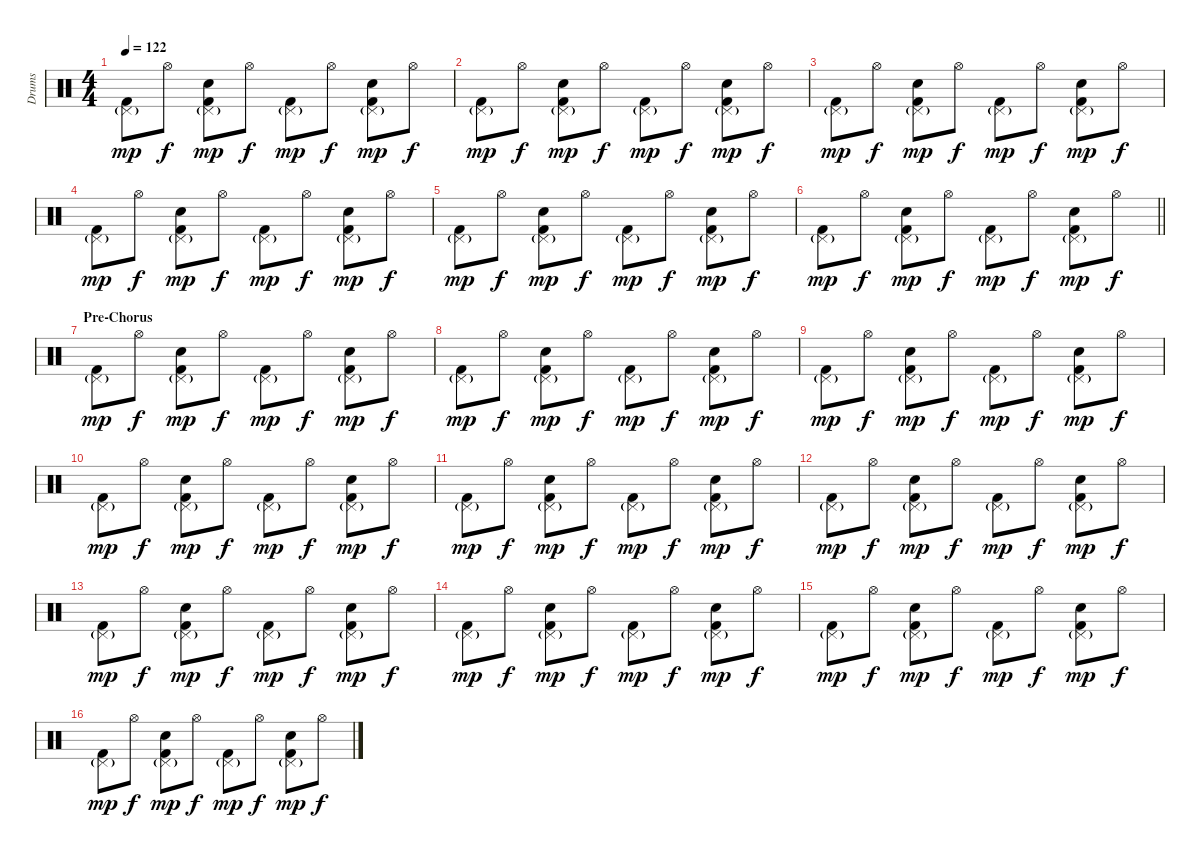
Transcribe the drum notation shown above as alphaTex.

\track ("Drums" "Drums") {instrument percussion}
\staff {score}
\articulation defaults
\ts (4 4)
\tempo 122
\clef neutral
\ks c
("Pedal Hi-Hat (hit)"{g} "Kick (hit) 2").8{dy mp} "Hi-Hat (open)".8{dy f} ("Pedal Hi-Hat (hit)"{g} "Snare (hit) 2" "Kick (hit) 2").8{dy mp} "Hi-Hat (open)".8{dy f} ("Pedal Hi-Hat (hit)"{g} "Kick (hit) 2").8{dy mp} "Hi-Hat (open)".8{dy f} ("Pedal Hi-Hat (hit)"{g} "Snare (hit) 2" "Kick (hit) 2").8{dy mp} "Hi-Hat (open)".8{dy f} |
("Pedal Hi-Hat (hit)"{g} "Kick (hit) 2").8{dy mp} "Hi-Hat (open)".8{dy f} ("Pedal Hi-Hat (hit)"{g} "Snare (hit) 2" "Kick (hit) 2").8{dy mp} "Hi-Hat (open)".8{dy f} ("Pedal Hi-Hat (hit)"{g} "Kick (hit) 2").8{dy mp} "Hi-Hat (open)".8{dy f} ("Pedal Hi-Hat (hit)"{g} "Snare (hit) 2" "Kick (hit) 2").8{dy mp} "Hi-Hat (open)".8{dy f} |
("Pedal Hi-Hat (hit)"{g} "Kick (hit) 2").8{dy mp} "Hi-Hat (open)".8{dy f} ("Pedal Hi-Hat (hit)"{g} "Snare (hit) 2" "Kick (hit) 2").8{dy mp} "Hi-Hat (open)".8{dy f} ("Pedal Hi-Hat (hit)"{g} "Kick (hit) 2").8{dy mp} "Hi-Hat (open)".8{dy f} ("Pedal Hi-Hat (hit)"{g} "Snare (hit) 2" "Kick (hit) 2").8{dy mp} "Hi-Hat (open)".8{dy f} |
("Pedal Hi-Hat (hit)"{g} "Kick (hit) 2").8{dy mp} "Hi-Hat (open)".8{dy f} ("Pedal Hi-Hat (hit)"{g} "Snare (hit) 2" "Kick (hit) 2").8{dy mp} "Hi-Hat (open)".8{dy f} ("Pedal Hi-Hat (hit)"{g} "Kick (hit) 2").8{dy mp} "Hi-Hat (open)".8{dy f} ("Pedal Hi-Hat (hit)"{g} "Snare (hit) 2" "Kick (hit) 2").8{dy mp} "Hi-Hat (open)".8{dy f} |
("Pedal Hi-Hat (hit)"{g} "Kick (hit) 2").8{dy mp} "Hi-Hat (open)".8{dy f} ("Pedal Hi-Hat (hit)"{g} "Snare (hit) 2" "Kick (hit) 2").8{dy mp} "Hi-Hat (open)".8{dy f} ("Pedal Hi-Hat (hit)"{g} "Kick (hit) 2").8{dy mp} "Hi-Hat (open)".8{dy f} ("Pedal Hi-Hat (hit)"{g} "Snare (hit) 2" "Kick (hit) 2").8{dy mp} "Hi-Hat (open)".8{dy f} |
\barLineRight lightlight
("Pedal Hi-Hat (hit)"{g} "Kick (hit) 2").8{dy mp} "Hi-Hat (open)".8{dy f} ("Pedal Hi-Hat (hit)"{g} "Snare (hit) 2" "Kick (hit) 2").8{dy mp} "Hi-Hat (open)".8{dy f} ("Pedal Hi-Hat (hit)"{g} "Kick (hit) 2").8{dy mp} "Hi-Hat (open)".8{dy f} ("Pedal Hi-Hat (hit)"{g} "Snare (hit) 2" "Kick (hit) 2").8{dy mp} "Hi-Hat (open)".8{dy f} |
\section ("" "Pre-Chorus")
("Pedal Hi-Hat (hit)"{g} "Kick (hit) 2").8{dy mp} "Hi-Hat (open)".8{dy f} ("Pedal Hi-Hat (hit)"{g} "Snare (hit) 2" "Kick (hit) 2").8{dy mp} "Hi-Hat (open)".8{dy f} ("Pedal Hi-Hat (hit)"{g} "Kick (hit) 2").8{dy mp} "Hi-Hat (open)".8{dy f} ("Pedal Hi-Hat (hit)"{g} "Snare (hit) 2" "Kick (hit) 2").8{dy mp} "Hi-Hat (open)".8{dy f} |
("Pedal Hi-Hat (hit)"{g} "Kick (hit) 2").8{dy mp} "Hi-Hat (open)".8{dy f} ("Pedal Hi-Hat (hit)"{g} "Snare (hit) 2" "Kick (hit) 2").8{dy mp} "Hi-Hat (open)".8{dy f} ("Pedal Hi-Hat (hit)"{g} "Kick (hit) 2").8{dy mp} "Hi-Hat (open)".8{dy f} ("Pedal Hi-Hat (hit)"{g} "Snare (hit) 2" "Kick (hit) 2").8{dy mp} "Hi-Hat (open)".8{dy f} |
("Pedal Hi-Hat (hit)"{g} "Kick (hit) 2").8{dy mp} "Hi-Hat (open)".8{dy f} ("Pedal Hi-Hat (hit)"{g} "Snare (hit) 2" "Kick (hit) 2").8{dy mp} "Hi-Hat (open)".8{dy f} ("Pedal Hi-Hat (hit)"{g} "Kick (hit) 2").8{dy mp} "Hi-Hat (open)".8{dy f} ("Pedal Hi-Hat (hit)"{g} "Snare (hit) 2" "Kick (hit) 2").8{dy mp} "Hi-Hat (open)".8{dy f} |
("Pedal Hi-Hat (hit)"{g} "Kick (hit) 2").8{dy mp} "Hi-Hat (open)".8{dy f} ("Pedal Hi-Hat (hit)"{g} "Snare (hit) 2" "Kick (hit) 2").8{dy mp} "Hi-Hat (open)".8{dy f} ("Pedal Hi-Hat (hit)"{g} "Kick (hit) 2").8{dy mp} "Hi-Hat (open)".8{dy f} ("Pedal Hi-Hat (hit)"{g} "Snare (hit) 2" "Kick (hit) 2").8{dy mp} "Hi-Hat (open)".8{dy f} |
("Pedal Hi-Hat (hit)"{g} "Kick (hit) 2").8{dy mp} "Hi-Hat (open)".8{dy f} ("Pedal Hi-Hat (hit)"{g} "Snare (hit) 2" "Kick (hit) 2").8{dy mp} "Hi-Hat (open)".8{dy f} ("Pedal Hi-Hat (hit)"{g} "Kick (hit) 2").8{dy mp} "Hi-Hat (open)".8{dy f} ("Pedal Hi-Hat (hit)"{g} "Snare (hit) 2" "Kick (hit) 2").8{dy mp} "Hi-Hat (open)".8{dy f} |
("Pedal Hi-Hat (hit)"{g} "Kick (hit) 2").8{dy mp} "Hi-Hat (open)".8{dy f} ("Pedal Hi-Hat (hit)"{g} "Snare (hit) 2" "Kick (hit) 2").8{dy mp} "Hi-Hat (open)".8{dy f} ("Pedal Hi-Hat (hit)"{g} "Kick (hit) 2").8{dy mp} "Hi-Hat (open)".8{dy f} ("Pedal Hi-Hat (hit)"{g} "Snare (hit) 2" "Kick (hit) 2").8{dy mp} "Hi-Hat (open)".8{dy f} |
("Pedal Hi-Hat (hit)"{g} "Kick (hit) 2").8{dy mp} "Hi-Hat (open)".8{dy f} ("Pedal Hi-Hat (hit)"{g} "Snare (hit) 2" "Kick (hit) 2").8{dy mp} "Hi-Hat (open)".8{dy f} ("Pedal Hi-Hat (hit)"{g} "Kick (hit) 2").8{dy mp} "Hi-Hat (open)".8{dy f} ("Pedal Hi-Hat (hit)"{g} "Snare (hit) 2" "Kick (hit) 2").8{dy mp} "Hi-Hat (open)".8{dy f} |
("Pedal Hi-Hat (hit)"{g} "Kick (hit) 2").8{dy mp} "Hi-Hat (open)".8{dy f} ("Pedal Hi-Hat (hit)"{g} "Snare (hit) 2" "Kick (hit) 2").8{dy mp} "Hi-Hat (open)".8{dy f} ("Pedal Hi-Hat (hit)"{g} "Kick (hit) 2").8{dy mp} "Hi-Hat (open)".8{dy f} ("Pedal Hi-Hat (hit)"{g} "Snare (hit) 2" "Kick (hit) 2").8{dy mp} "Hi-Hat (open)".8{dy f} |
("Pedal Hi-Hat (hit)"{g} "Kick (hit) 2").8{dy mp} "Hi-Hat (open)".8{dy f} ("Pedal Hi-Hat (hit)"{g} "Snare (hit) 2" "Kick (hit) 2").8{dy mp} "Hi-Hat (open)".8{dy f} ("Pedal Hi-Hat (hit)"{g} "Kick (hit) 2").8{dy mp} "Hi-Hat (open)".8{dy f} ("Pedal Hi-Hat (hit)"{g} "Snare (hit) 2" "Kick (hit) 2").8{dy mp} "Hi-Hat (open)".8{dy f} |
("Pedal Hi-Hat (hit)"{g} "Kick (hit) 2").8{dy mp} "Hi-Hat (open)".8{dy f} ("Pedal Hi-Hat (hit)"{g} "Snare (hit) 2" "Kick (hit) 2").8{dy mp} "Hi-Hat (open)".8{dy f} ("Pedal Hi-Hat (hit)"{g} "Kick (hit) 2").8{dy mp} "Hi-Hat (open)".8{dy f} ("Pedal Hi-Hat (hit)"{g} "Snare (hit) 2" "Kick (hit) 2").8{dy mp} "Hi-Hat (open)".8{dy f}
